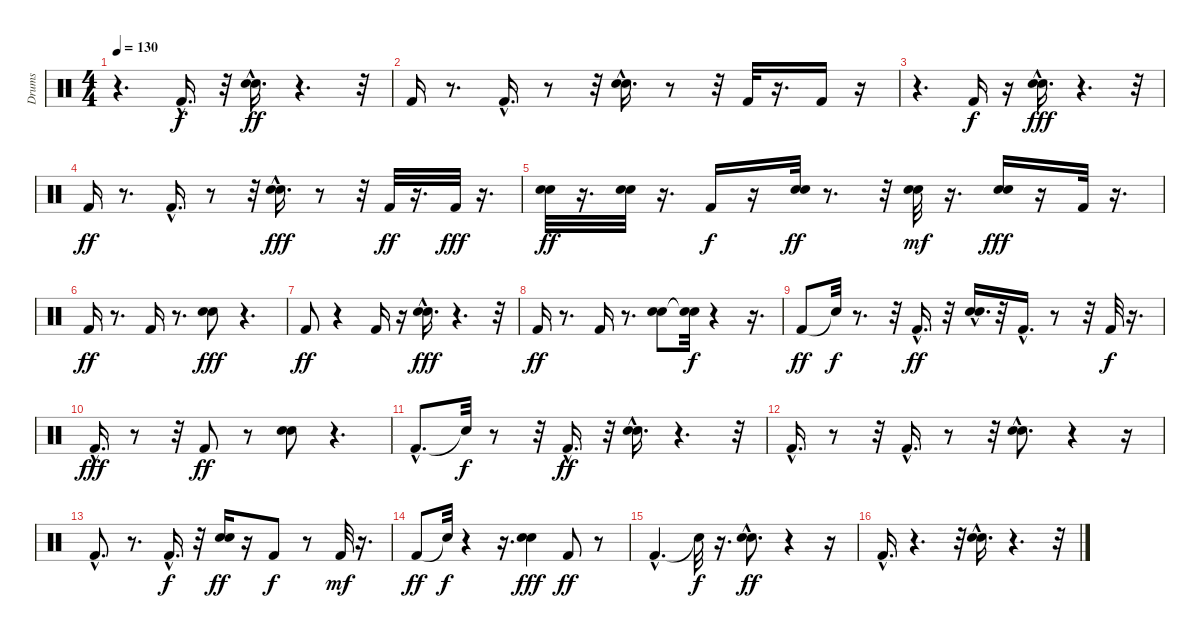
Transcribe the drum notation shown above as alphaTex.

\track ("Drums" "Drums") {instrument percussion}
\staff {score}
\articulation defaults
\ts (4 4)
\tempo 130
\clef neutral
\ks c
r.4{d dy ff} "Kick (hit) 2"{hac}.16{d dy f} r.32 ("Hand Clap (hit)"{hac} "Snare (hit) 2"{hac}).16{d dy ff} r.4{d} r.32 |
"Kick (hit) 2".16 r.8{d} "Kick (hit) 2"{hac}.16{d} r.8 r.32 ("Hand Clap (hit)"{hac} "Snare (hit) 2"{hac}).16{d} r.8 r.32 "Kick (hit) 2".32 r.16{d} "Kick (hit) 2".16 r.16 |
r.4{d} "Kick (hit) 2".16{dy f} r.16 ("Snare (hit) 2"{hac} "Hand Clap (hit)"{hac}).16{d dy fff} r.4{d} r.32 |
"Kick (hit) 2".16{dy ff} r.8{d} "Kick (hit) 2"{hac}.16{d} r.8 r.32 ("Snare (hit) 2"{hac} "Hand Clap (hit)").16{d dy fff} r.8 r.32 "Kick (hit) 2".32{dy ff} r.16{d} "Kick (hit) 2".32{dy fff} r.16{d} |
("Hand Clap (hit)" "Snare (hit) 2").32{dy ff} r.16{d} ("Hand Clap (hit)" "Snare (hit) 2").32 r.16{d} "Kick (hit) 2".16{dy f} r.16 ("Hand Clap (hit)" "Snare (hit) 2").32{dy ff} r.8{d} r.32 ("Hand Clap (hit)" "Snare (hit) 2").32{dy mf} r.16{d} ("Hand Clap (hit)" "Snare (hit) 2").16{dy fff} r.16 "Kick (hit) 2".32 r.16{d} |
"Kick (hit) 2".16{dy ff} r.8{d} "Kick (hit) 2".16 r.8{d} ("Hand Clap (hit)" "Snare (hit) 2").8{dy fff} r.4{d} |
"Kick (hit) 2".8{dy ff} r.4 "Kick (hit) 2".16 r.16 ("Snare (hit) 2"{hac} "Hand Clap (hit)"{hac}).16{d dy fff} r.4{d} r.32 |
"Kick (hit) 2".16{dy ff} r.8{d} "Kick (hit) 2".16 r.8{d} ("Hand Clap (hit)" "Snare (hit) 2").8 ("Snare (hit)"{t} "Snare (hit)"{t}).32{dy f} r.4 r.16{d} |
"Kick (hit) 2".8{dy ff} "Snare (hit)"{t}.32{dy f} r.8{d} r.32 "Kick (hit) 2"{hac}.16{d dy ff} r.32 ("Hand Clap (hit)"{hac} "Snare (hit) 2").16{d} r.32 "Kick (hit) 2"{hac}.16{d} r.8 r.32 "Kick (hit) 2".32{dy f} r.16{d} |
"Kick (hit) 2"{hac}.16{d dy fff} r.8 r.32 "Kick (hit) 2".8{dy ff} r.8 ("Hand Clap (hit)" "Snare (hit) 2").8 r.4{d} |
"Kick (hit) 2"{hac}.8{d} "Snare (hit)"{t}.32{dy f} r.8 r.32 "Kick (hit) 2"{hac}.16{d dy ff} r.32 ("Hand Clap (hit)" "Snare (hit) 2"{hac}).16{d} r.4{d} r.32 |
"Kick (hit) 2"{hac}.16{d} r.8 r.32 "Kick (hit) 2"{hac}.16{d} r.8 r.32 ("Hand Clap (hit)"{hac} "Snare (hit) 2"{hac}).8{d} r.4 r.16 |
"Kick (hit) 2"{hac}.8{d} r.8{d} "Kick (hit) 2"{hac}.16{d dy f} r.32 ("Hand Clap (hit)" "Snare (hit) 2").16{dy ff} r.16 "Kick (hit) 2".8{dy f} r.8 "Kick (hit) 2".32{dy mf} r.16{d} |
"Kick (hit) 2".8{dy ff} "Snare (hit)"{t}.32{dy f} r.4 r.16{d} ("Snare (hit) 2" "Hand Clap (hit)").4{dy fff} "Kick (hit) 2".8{dy ff} r.8 |
"Kick (hit) 2"{hac}.4{d} "Snare (hit)"{t}.32{dy f} r.16{d} ("Hand Clap (hit)"{hac} "Snare (hit) 2"{hac}).8{d dy ff} r.4 r.16 |
"Kick (hit) 2"{hac}.16{d} r.4{d} r.32 ("Hand Clap (hit)"{hac} "Snare (hit) 2"{hac}).16{d} r.4{d} r.32
